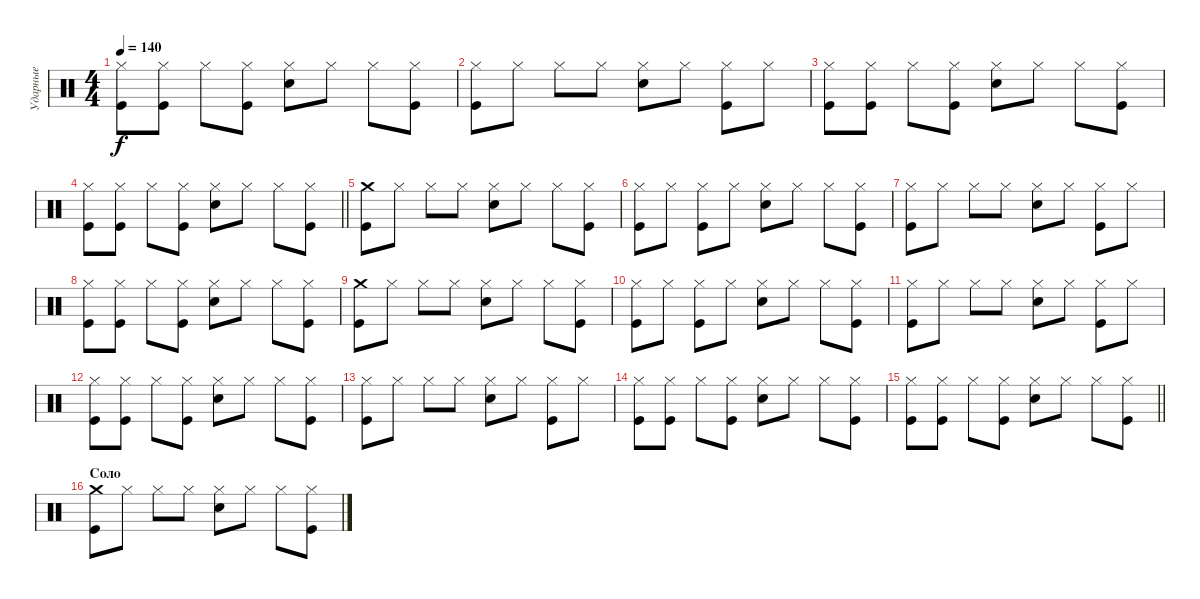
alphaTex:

\track ("Ударные" "Ударные") {instrument percussion}
\staff {score}
\articulation defaults
\ts (4 4)
\tempo 140
\clef neutral
\ks c
("Hi-Hat (closed)" "Kick (hit)").8{dy f} ("Hi-Hat (closed)" "Kick (hit)").8 "Hi-Hat (closed)".8 ("Hi-Hat (closed)" "Kick (hit)").8 ("Hi-Hat (closed)" "Snare (hit) 2").8 "Hi-Hat (closed)".8 "Hi-Hat (closed)".8 ("Hi-Hat (closed)" "Kick (hit)").8 |
("Hi-Hat (closed)" "Kick (hit)").8 "Hi-Hat (closed)".8 "Hi-Hat (closed)".8 "Hi-Hat (closed)".8 ("Hi-Hat (closed)" "Snare (hit) 2").8 "Hi-Hat (closed)".8 ("Hi-Hat (closed)" "Kick (hit)").8 "Hi-Hat (closed)".8 |
("Hi-Hat (closed)" "Kick (hit)").8 ("Hi-Hat (closed)" "Kick (hit)").8 "Hi-Hat (closed)".8 ("Hi-Hat (closed)" "Kick (hit)").8 ("Hi-Hat (closed)" "Snare (hit) 2").8 "Hi-Hat (closed)".8 "Hi-Hat (closed)".8 ("Hi-Hat (closed)" "Kick (hit)").8 |
\barLineRight lightlight
("Hi-Hat (closed)" "Kick (hit)").8 ("Hi-Hat (closed)" "Kick (hit)").8 "Hi-Hat (closed)".8 ("Hi-Hat (closed)" "Kick (hit)").8 ("Hi-Hat (closed)" "Snare (hit) 2").8 "Hi-Hat (closed)".8 "Hi-Hat (closed)".8 ("Hi-Hat (closed)" "Kick (hit)").8 |
("Crash medium (hit)" "Kick (hit)").8 "Hi-Hat (closed)".8 "Hi-Hat (closed)".8 "Hi-Hat (closed)".8 ("Hi-Hat (closed)" "Snare (hit) 2").8 "Hi-Hat (closed)".8 "Hi-Hat (closed)".8 ("Hi-Hat (closed)" "Kick (hit)").8 |
("Hi-Hat (closed)" "Kick (hit)").8 "Hi-Hat (closed)".8 ("Hi-Hat (closed)" "Kick (hit)").8 "Hi-Hat (closed)".8 ("Hi-Hat (closed)" "Snare (hit) 2").8 "Hi-Hat (closed)".8 "Hi-Hat (closed)".8 ("Hi-Hat (closed)" "Kick (hit)").8 |
("Hi-Hat (closed)" "Kick (hit)").8 "Hi-Hat (closed)".8 "Hi-Hat (closed)".8 "Hi-Hat (closed)".8 ("Hi-Hat (closed)" "Snare (hit) 2").8 "Hi-Hat (closed)".8 ("Hi-Hat (closed)" "Kick (hit)").8 "Hi-Hat (closed)".8 |
("Hi-Hat (closed)" "Kick (hit)").8 ("Hi-Hat (closed)" "Kick (hit)").8 "Hi-Hat (closed)".8 ("Hi-Hat (closed)" "Kick (hit)").8 ("Hi-Hat (closed)" "Snare (hit) 2").8 "Hi-Hat (closed)".8 "Hi-Hat (closed)".8 ("Hi-Hat (closed)" "Kick (hit)").8 |
("Crash medium (hit)" "Kick (hit)").8 "Hi-Hat (closed)".8 "Hi-Hat (closed)".8 "Hi-Hat (closed)".8 ("Hi-Hat (closed)" "Snare (hit) 2").8 "Hi-Hat (closed)".8 "Hi-Hat (closed)".8 ("Hi-Hat (closed)" "Kick (hit)").8 |
("Hi-Hat (closed)" "Kick (hit)").8 "Hi-Hat (closed)".8 ("Hi-Hat (closed)" "Kick (hit)").8 "Hi-Hat (closed)".8 ("Hi-Hat (closed)" "Snare (hit) 2").8 "Hi-Hat (closed)".8 "Hi-Hat (closed)".8 ("Hi-Hat (closed)" "Kick (hit)").8 |
("Hi-Hat (closed)" "Kick (hit)").8 "Hi-Hat (closed)".8 "Hi-Hat (closed)".8 "Hi-Hat (closed)".8 ("Hi-Hat (closed)" "Snare (hit) 2").8 "Hi-Hat (closed)".8 ("Hi-Hat (closed)" "Kick (hit)").8 "Hi-Hat (closed)".8 |
("Hi-Hat (closed)" "Kick (hit)").8 ("Hi-Hat (closed)" "Kick (hit)").8 "Hi-Hat (closed)".8 ("Hi-Hat (closed)" "Kick (hit)").8 ("Hi-Hat (closed)" "Snare (hit) 2").8 "Hi-Hat (closed)".8 "Hi-Hat (closed)".8 ("Hi-Hat (closed)" "Kick (hit)").8 |
("Hi-Hat (closed)" "Kick (hit)").8 "Hi-Hat (closed)".8 "Hi-Hat (closed)".8 "Hi-Hat (closed)".8 ("Hi-Hat (closed)" "Snare (hit) 2").8 "Hi-Hat (closed)".8 ("Hi-Hat (closed)" "Kick (hit)").8 "Hi-Hat (closed)".8 |
("Hi-Hat (closed)" "Kick (hit)").8 ("Hi-Hat (closed)" "Kick (hit)").8 "Hi-Hat (closed)".8 ("Hi-Hat (closed)" "Kick (hit)").8 ("Hi-Hat (closed)" "Snare (hit) 2").8 "Hi-Hat (closed)".8 "Hi-Hat (closed)".8 ("Hi-Hat (closed)" "Kick (hit)").8 |
\barLineRight lightlight
("Hi-Hat (closed)" "Kick (hit)").8 ("Hi-Hat (closed)" "Kick (hit)").8 "Hi-Hat (closed)".8 ("Hi-Hat (closed)" "Kick (hit)").8 ("Hi-Hat (closed)" "Snare (hit) 2").8 "Hi-Hat (closed)".8 "Hi-Hat (closed)".8 ("Hi-Hat (closed)" "Kick (hit)").8 |
\section ("" "Соло")
("Crash medium (hit)" "Kick (hit)").8 "Hi-Hat (closed)".8 "Hi-Hat (closed)".8 "Hi-Hat (closed)".8 ("Hi-Hat (closed)" "Snare (hit) 2").8 "Hi-Hat (closed)".8 "Hi-Hat (closed)".8 ("Hi-Hat (closed)" "Kick (hit)").8
